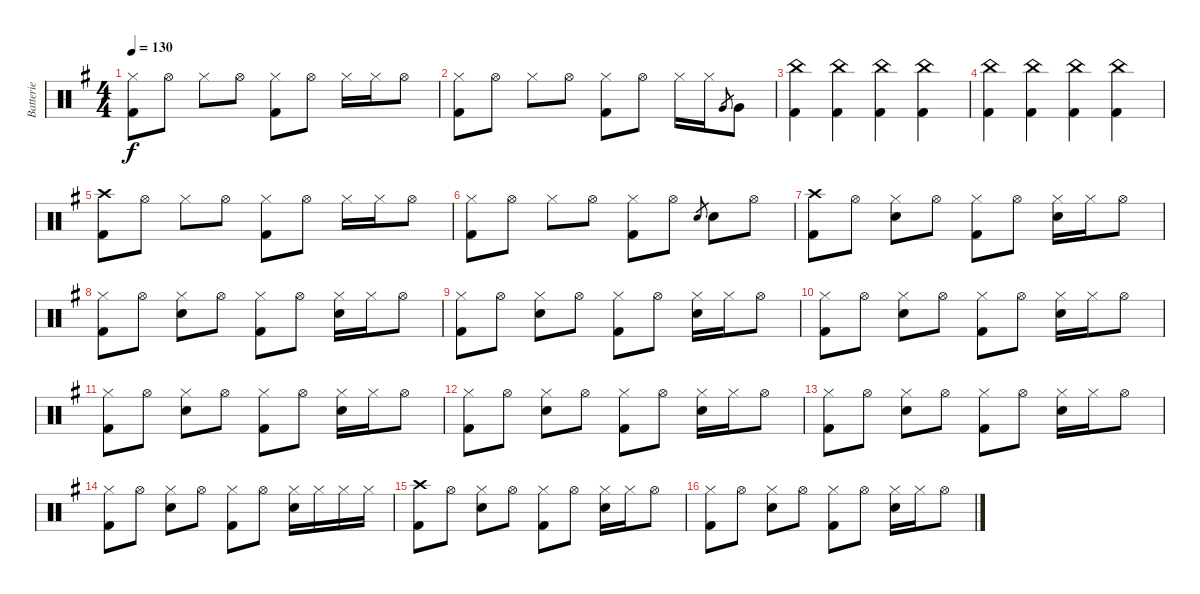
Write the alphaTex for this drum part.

\track ("Batterie" "Batterie") {instrument percussion}
\staff {score}
\articulation defaults
\ts (4 4)
\tempo 130
\clef neutral
\ks g
("Hi-Hat (closed)" "Kick (hit) 2").8{dy f} "Hi-Hat (open)".8 "Hi-Hat (closed)".8 "Hi-Hat (open)".8 ("Hi-Hat (closed)" "Kick (hit) 2").8 "Hi-Hat (open)".8 "Hi-Hat (closed)".16 "Hi-Hat (closed)".16 "Hi-Hat (open)".8 |
("Hi-Hat (closed)" "Kick (hit) 2").8 "Hi-Hat (open)".8 "Hi-Hat (closed)".8 "Hi-Hat (open)".8 ("Hi-Hat (closed)" "Kick (hit) 2").8 "Hi-Hat (open)".8 "Hi-Hat (closed)".16 "Hi-Hat (closed)".16 "Very Low Tom (hit)".8{gr} "Very Low Tom (hit)".8 |
("China (hit)" "Kick (hit) 2").4 ("China (hit)" "Kick (hit) 2").4 ("China (hit)" "Kick (hit) 2").4 ("China (hit)" "Kick (hit) 2").4 |
("China (hit)" "Kick (hit) 2").4 ("China (hit)" "Kick (hit) 2").4 ("China (hit)" "Kick (hit) 2").4 ("China (hit)" "Kick (hit) 2").4 |
("Crash high (hit)" "Kick (hit) 2").8 "Hi-Hat (open)".8 "Hi-Hat (closed)".8 "Hi-Hat (open)".8 ("Hi-Hat (closed)" "Kick (hit) 2").8 "Hi-Hat (open)".8 "Hi-Hat (closed)".16 "Hi-Hat (closed)".16 "Hi-Hat (open)".8 |
("Hi-Hat (closed)" "Kick (hit) 2").8 "Hi-Hat (open)".8 "Hi-Hat (closed)".8 "Hi-Hat (open)".8 ("Hi-Hat (closed)" "Kick (hit) 2").8 "Hi-Hat (open)".8 "Snare (hit) 2".8{gr} "Snare (hit) 2".8 "Hi-Hat (open)".8 |
("Crash high (hit)" "Kick (hit) 2").8 "Hi-Hat (open)".8 ("Hi-Hat (closed)" "Snare (hit) 2").8 "Hi-Hat (open)".8 ("Hi-Hat (closed)" "Kick (hit) 2").8 "Hi-Hat (open)".8 ("Hi-Hat (closed)" "Snare (hit) 2").16 "Hi-Hat (closed)".16 "Hi-Hat (open)".8 |
("Hi-Hat (closed)" "Kick (hit) 2").8 "Hi-Hat (open)".8 ("Hi-Hat (closed)" "Snare (hit) 2").8 "Hi-Hat (open)".8 ("Hi-Hat (closed)" "Kick (hit) 2").8 "Hi-Hat (open)".8 ("Hi-Hat (closed)" "Snare (hit) 2").16 "Hi-Hat (closed)".16 "Hi-Hat (open)".8 |
("Hi-Hat (closed)" "Kick (hit) 2").8 "Hi-Hat (open)".8 ("Hi-Hat (closed)" "Snare (hit) 2").8 "Hi-Hat (open)".8 ("Hi-Hat (closed)" "Kick (hit) 2").8 "Hi-Hat (open)".8 ("Hi-Hat (closed)" "Snare (hit) 2").16 "Hi-Hat (closed)".16 "Hi-Hat (open)".8 |
("Hi-Hat (closed)" "Kick (hit) 2").8 "Hi-Hat (open)".8 ("Hi-Hat (closed)" "Snare (hit) 2").8 "Hi-Hat (open)".8 ("Hi-Hat (closed)" "Kick (hit) 2").8 "Hi-Hat (open)".8 ("Hi-Hat (closed)" "Snare (hit) 2").16 "Hi-Hat (closed)".16 "Hi-Hat (open)".8 |
("Hi-Hat (closed)" "Kick (hit) 2").8 "Hi-Hat (open)".8 ("Hi-Hat (closed)" "Snare (hit) 2").8 "Hi-Hat (open)".8 ("Hi-Hat (closed)" "Kick (hit) 2").8 "Hi-Hat (open)".8 ("Hi-Hat (closed)" "Snare (hit) 2").16 "Hi-Hat (closed)".16 "Hi-Hat (open)".8 |
("Hi-Hat (closed)" "Kick (hit) 2").8 "Hi-Hat (open)".8 ("Hi-Hat (closed)" "Snare (hit) 2").8 "Hi-Hat (open)".8 ("Hi-Hat (closed)" "Kick (hit) 2").8 "Hi-Hat (open)".8 ("Hi-Hat (closed)" "Snare (hit) 2").16 "Hi-Hat (closed)".16 "Hi-Hat (open)".8 |
("Hi-Hat (closed)" "Kick (hit) 2").8 "Hi-Hat (open)".8 ("Hi-Hat (closed)" "Snare (hit) 2").8 "Hi-Hat (open)".8 ("Hi-Hat (closed)" "Kick (hit) 2").8 "Hi-Hat (open)".8 ("Hi-Hat (closed)" "Snare (hit) 2").16 "Hi-Hat (closed)".16 "Hi-Hat (open)".8 |
("Hi-Hat (closed)" "Kick (hit) 2").8 "Hi-Hat (open)".8 ("Hi-Hat (closed)" "Snare (hit) 2").8 "Hi-Hat (open)".8 ("Hi-Hat (closed)" "Kick (hit) 2").8 "Hi-Hat (open)".8 ("Hi-Hat (closed)" "Snare (hit) 2").16 "Hi-Hat (closed)".16 "Hi-Hat (closed)".16 "Hi-Hat (closed)".16 |
("Crash high (hit)" "Kick (hit) 2").8 "Hi-Hat (open)".8 ("Hi-Hat (closed)" "Snare (hit) 2").8 "Hi-Hat (open)".8 ("Hi-Hat (closed)" "Kick (hit) 2").8 "Hi-Hat (open)".8 ("Hi-Hat (closed)" "Snare (hit) 2").16 "Hi-Hat (closed)".16 "Hi-Hat (open)".8 |
("Hi-Hat (closed)" "Kick (hit) 2").8 "Hi-Hat (open)".8 ("Hi-Hat (closed)" "Snare (hit) 2").8 "Hi-Hat (open)".8 ("Hi-Hat (closed)" "Kick (hit) 2").8 "Hi-Hat (open)".8 ("Hi-Hat (closed)" "Snare (hit) 2").16 "Hi-Hat (closed)".16 "Hi-Hat (open)".8
